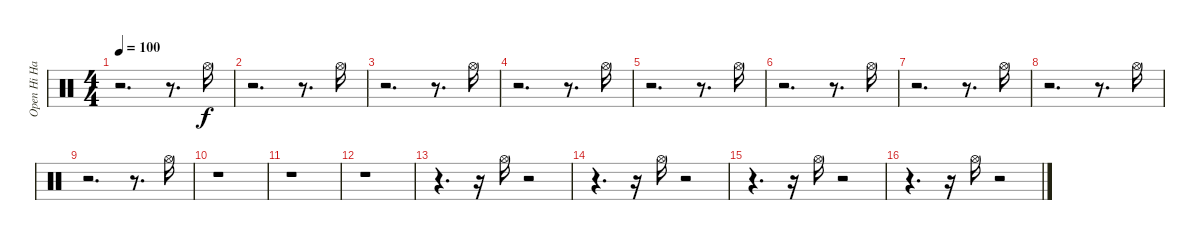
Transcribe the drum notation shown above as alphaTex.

\track ("Open Hi Hat" "Open Hi Ha") {instrument percussion}
\staff {score}
\articulation defaults
\ts (4 4)
\tempo 100
\clef neutral
\ks c
r.2{d dy f} r.8{d} "Hi-Hat (open)".16 |
r.2{d} r.8{d} "Hi-Hat (open)".16 |
r.2{d} r.8{d} "Hi-Hat (open)".16 |
r.2{d} r.8{d} "Hi-Hat (open)".16 |
r.2{d} r.8{d} "Hi-Hat (open)".16 |
r.2{d} r.8{d} "Hi-Hat (open)".16 |
r.2{d} r.8{d} "Hi-Hat (open)".16 |
r.2{d} r.8{d} "Hi-Hat (open)".16 |
r.2{d} r.8{d} "Hi-Hat (open)".16 |
r.1 |
r.1 |
r.1 |
r.4{d} r.16 "Hi-Hat (open)".16 r.2 |
r.4{d} r.16 "Hi-Hat (open)".16 r.2 |
r.4{d} r.16 "Hi-Hat (open)".16 r.2 |
r.4{d} r.16 "Hi-Hat (open)".16 r.2
